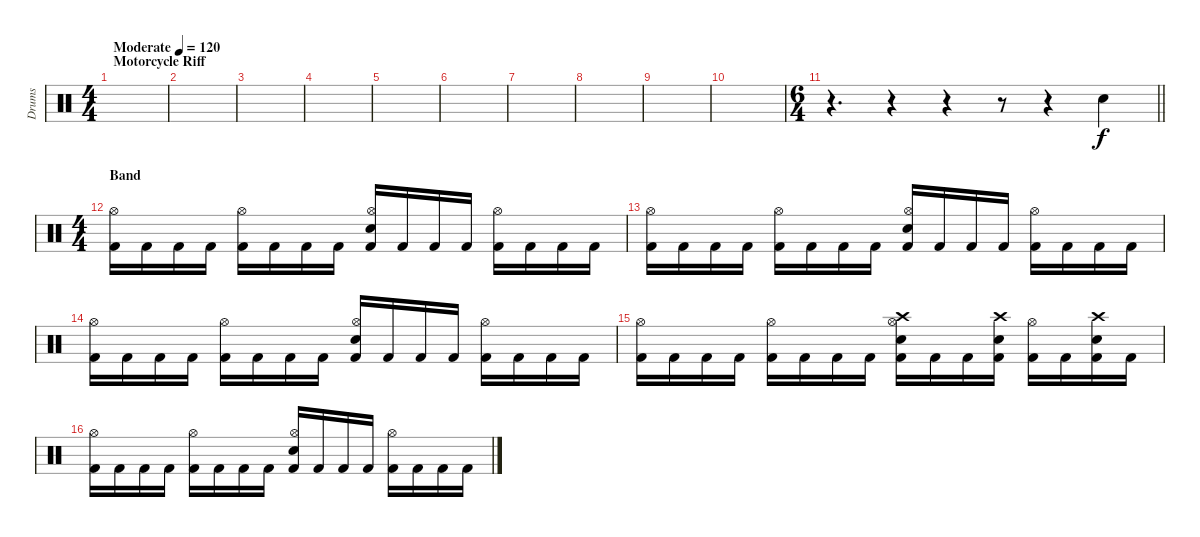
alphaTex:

\track ("Drums" "Drums") {instrument percussion}
\staff {score}
\articulation defaults
\ts (4 4)
\section ("" "Motorcycle Riff")
\tempo (120 "Moderate")
\clef neutral
\ks c
|
|
|
|
|
|
|
|
|
|
\ts (6 4)
\barLineRight lightlight
r.4{d} r.4 r.4 r.8 r.4 "Snare (hit) 2".4 |
\ts (4 4)
\section ("" "Band")
("Hi-Hat (open)" "Kick (hit) 2").16{dy f} "Kick (hit) 2".16 "Kick (hit) 2".16 "Kick (hit) 2".16 ("Hi-Hat (open)" "Kick (hit) 2").16 "Kick (hit) 2".16 "Kick (hit) 2".16 "Kick (hit) 2".16 ("Hi-Hat (open)" "Snare (hit) 2" "Kick (hit) 2").16 "Kick (hit) 2".16 "Kick (hit) 2".16 "Kick (hit) 2".16 ("Hi-Hat (open)" "Kick (hit) 2").16 "Kick (hit) 2".16 "Kick (hit) 2".16 "Kick (hit) 2".16 |
("Hi-Hat (open)" "Kick (hit) 2").16 "Kick (hit) 2".16 "Kick (hit) 2".16 "Kick (hit) 2".16 ("Hi-Hat (open)" "Kick (hit) 2").16 "Kick (hit) 2".16 "Kick (hit) 2".16 "Kick (hit) 2".16 ("Hi-Hat (open)" "Snare (hit) 2" "Kick (hit) 2").16 "Kick (hit) 2".16 "Kick (hit) 2".16 "Kick (hit) 2".16 ("Hi-Hat (open)" "Kick (hit) 2").16 "Kick (hit) 2".16 "Kick (hit) 2".16 "Kick (hit) 2".16 |
("Hi-Hat (open)" "Kick (hit) 2").16 "Kick (hit) 2".16 "Kick (hit) 2".16 "Kick (hit) 2".16 ("Hi-Hat (open)" "Kick (hit) 2").16 "Kick (hit) 2".16 "Kick (hit) 2".16 "Kick (hit) 2".16 ("Hi-Hat (open)" "Snare (hit) 2" "Kick (hit) 2").16 "Kick (hit) 2".16 "Kick (hit) 2".16 "Kick (hit) 2".16 ("Hi-Hat (open)" "Kick (hit) 2").16 "Kick (hit) 2".16 "Kick (hit) 2".16 "Kick (hit) 2".16 |
("Hi-Hat (open)" "Kick (hit) 2").16 "Kick (hit) 2".16 "Kick (hit) 2".16 "Kick (hit) 2".16 ("Hi-Hat (open)" "Kick (hit) 2").16 "Kick (hit) 2".16 "Kick (hit) 2".16 "Kick (hit) 2".16 ("Crash high (hit)" "Hi-Hat (open)" "Snare (hit) 2" "Kick (hit) 2").16 "Kick (hit) 2".16 "Kick (hit) 2".16 ("Crash high (hit)" "Snare (hit) 2" "Kick (hit) 2").16 ("Hi-Hat (open)" "Kick (hit) 2").16 "Kick (hit) 2".16 ("Crash high (hit)" "Snare (hit) 2" "Kick (hit) 2").16 "Kick (hit) 2".16 |
("Hi-Hat (open)" "Kick (hit) 2").16 "Kick (hit) 2".16 "Kick (hit) 2".16 "Kick (hit) 2".16 ("Hi-Hat (open)" "Kick (hit) 2").16 "Kick (hit) 2".16 "Kick (hit) 2".16 "Kick (hit) 2".16 ("Hi-Hat (open)" "Snare (hit) 2" "Kick (hit) 2").16 "Kick (hit) 2".16 "Kick (hit) 2".16 "Kick (hit) 2".16 ("Hi-Hat (open)" "Kick (hit) 2").16 "Kick (hit) 2".16 "Kick (hit) 2".16 "Kick (hit) 2".16
